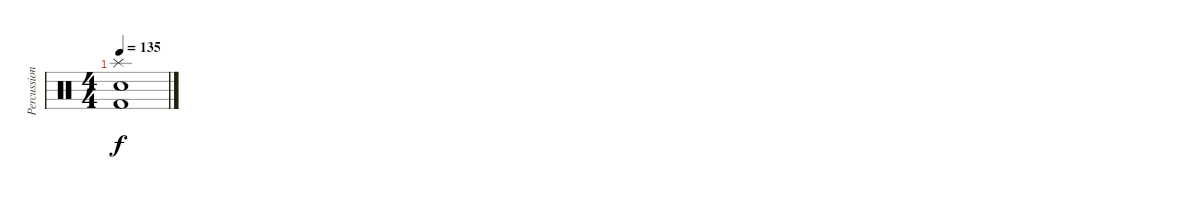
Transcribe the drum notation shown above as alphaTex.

\track ("Percussion" "Percussion") {instrument percussion}
\staff {score}
\articulation defaults
\ts (4 4)
\tempo 135
\clef neutral
\ks c
("Splash (hit)" "Electric Snare (hit)" "Kick (hit) 2").1{dy f}
